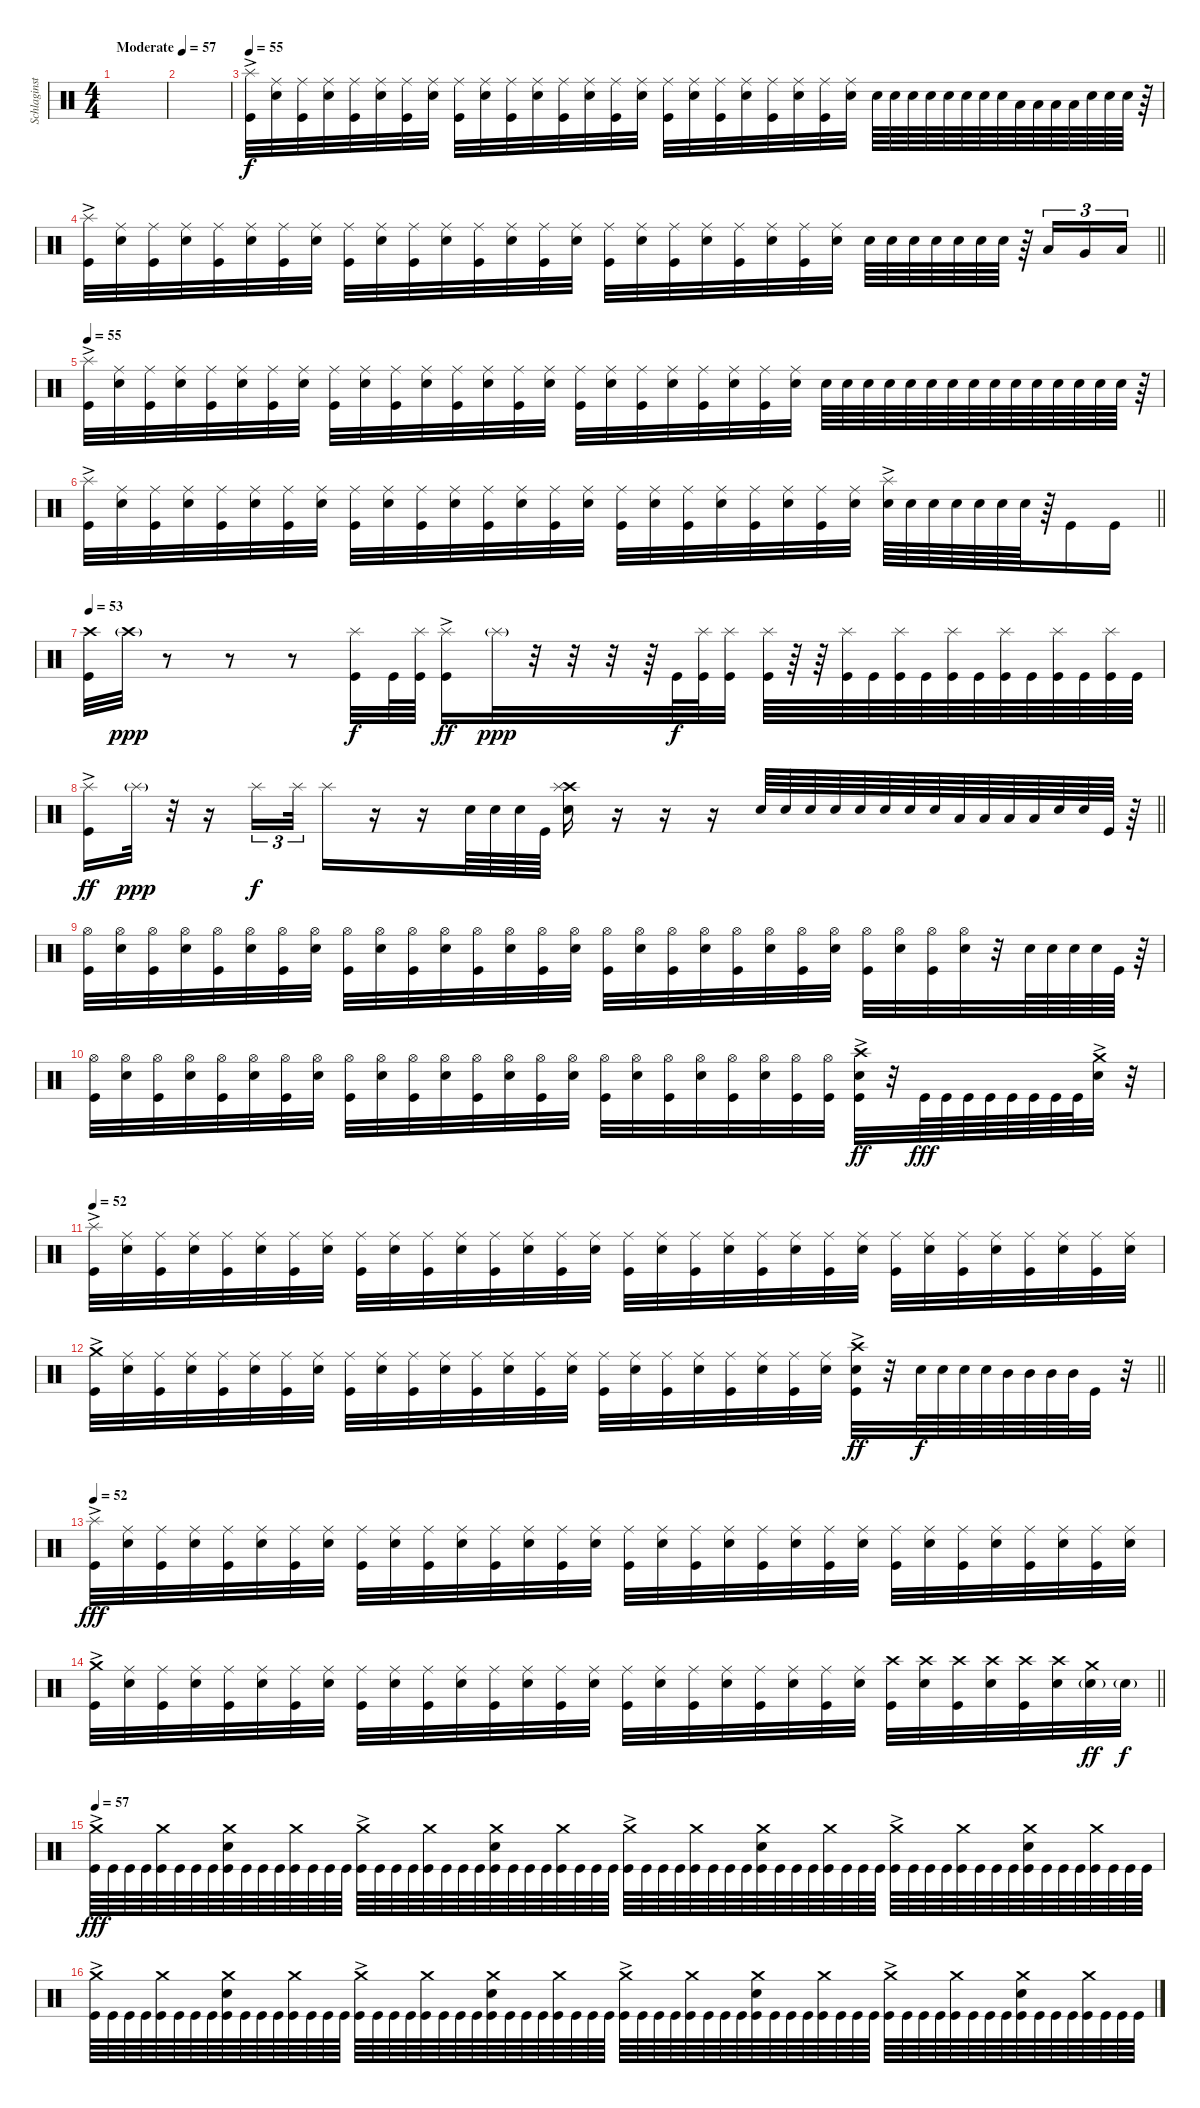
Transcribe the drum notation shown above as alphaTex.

\track ("Schlaginstrumente - Auswahl" "Schlaginst") {instrument percussion}
\staff {score}
\articulation defaults
\ts (4 4)
\tempo (57 "Moderate")
\clef neutral
\ks c
|
|
\tempo 55
("Kick (hit)" "Splash (hit)"{ac}).32 ("Snare (hit) 2" "Ride (middle)").32 ("Kick (hit)" "Ride (middle)").32 ("Snare (hit) 2" "Ride (middle)").32 ("Kick (hit)" "Ride (middle)").32 ("Snare (hit) 2" "Ride (middle)").32 ("Kick (hit)" "Ride (middle)").32 ("Snare (hit) 2" "Ride (middle)").32 ("Kick (hit)" "Ride (middle)").32 ("Snare (hit) 2" "Ride (middle)").32 ("Kick (hit)" "Ride (middle)").32 ("Snare (hit) 2" "Ride (middle)").32 ("Kick (hit)" "Ride (middle)").32 ("Snare (hit) 2" "Ride (middle)").32 ("Kick (hit)" "Ride (middle)").32 ("Snare (hit) 2" "Ride (middle)").32 ("Kick (hit)" "Ride (middle)").32 ("Snare (hit) 2" "Ride (middle)").32 ("Kick (hit)" "Ride (middle)").32 ("Snare (hit) 2" "Ride (middle)").32 ("Kick (hit)" "Ride (middle)").32 ("Snare (hit) 2" "Ride (middle)").32 ("Kick (hit)" "Ride (middle)").32 ("Snare (hit) 2" "Ride (middle)").32 "Snare (hit) 2".64 "Snare (hit) 2".64 "Snare (hit) 2".64 "Snare (hit) 2".64 "Snare (hit) 2".64 "Snare (hit) 2".64 "Snare (hit) 2".64 "Snare (hit) 2".64 "Low Tom (hit)".64 "Low Tom (hit)".64 "Low Tom (hit)".64 "Low Tom (hit)".64 "Snare (hit) 2".64 "Snare (hit) 2".64 "Snare (hit) 2".64 r.64 |
\barLineRight lightlight
("Kick (hit)" "Splash (hit)"{ac}).32 ("Snare (hit) 2" "Ride (middle)").32 ("Kick (hit)" "Ride (middle)").32 ("Snare (hit) 2" "Ride (middle)").32 ("Kick (hit)" "Ride (middle)").32 ("Snare (hit) 2" "Ride (middle)").32 ("Kick (hit)" "Ride (middle)").32 ("Snare (hit) 2" "Ride (middle)").32 ("Kick (hit)" "Ride (middle)").32 ("Snare (hit) 2" "Ride (middle)").32 ("Kick (hit)" "Ride (middle)").32 ("Snare (hit) 2" "Ride (middle)").32 ("Kick (hit)" "Ride (middle)").32 ("Snare (hit) 2" "Ride (middle)").32 ("Kick (hit)" "Ride (middle)").32 ("Snare (hit) 2" "Ride (middle)").32 ("Kick (hit)" "Ride (middle)").32 ("Snare (hit) 2" "Ride (middle)").32 ("Kick (hit)" "Ride (middle)").32 ("Snare (hit) 2" "Ride (middle)").32 ("Kick (hit)" "Ride (middle)").32 ("Snare (hit) 2" "Ride (middle)").32 ("Kick (hit)" "Ride (middle)").32 ("Snare (hit) 2" "Ride (middle)").32 "Snare (hit) 2".64 "Snare (hit) 2".64 "Snare (hit) 2".64 "Snare (hit) 2".64 "Snare (hit) 2".64 "Snare (hit) 2".64 "Snare (hit) 2".64 r.64 "Low Tom (hit)".16{tu (3 2)} "Very Low Tom (hit)".16{tu (3 2)} "Low Floor Tom (hit)".16{tu (3 2)} |
\tempo 55
("Kick (hit)" "Splash (hit)"{ac}).32 ("Snare (hit) 2" "Ride (middle)").32 ("Kick (hit)" "Ride (middle)").32 ("Snare (hit) 2" "Ride (middle)").32 ("Kick (hit)" "Ride (middle)").32 ("Snare (hit) 2" "Ride (middle)").32 ("Kick (hit)" "Ride (middle)").32 ("Snare (hit) 2" "Ride (middle)").32 ("Kick (hit)" "Ride (middle)").32 ("Snare (hit) 2" "Ride (middle)").32 ("Kick (hit)" "Ride (middle)").32 ("Snare (hit) 2" "Ride (middle)").32 ("Kick (hit)" "Ride (middle)").32 ("Snare (hit) 2" "Ride (middle)").32 ("Kick (hit)" "Ride (middle)").32 ("Snare (hit) 2" "Ride (middle)").32 ("Kick (hit)" "Ride (middle)").32 ("Snare (hit) 2" "Ride (middle)").32 ("Kick (hit)" "Ride (middle)").32 ("Snare (hit) 2" "Ride (middle)").32 ("Kick (hit)" "Ride (middle)").32 ("Snare (hit) 2" "Ride (middle)").32 ("Kick (hit)" "Ride (middle)").32 ("Snare (hit) 2" "Ride (middle)").32 "Snare (hit) 2".64 "Snare (hit) 2".64 "Snare (hit) 2".64 "Snare (hit) 2".64 "Snare (hit) 2".64 "Snare (hit) 2".64 "Snare (hit) 2".64 "Snare (hit) 2".64 "Snare (hit) 2".64 "Snare (hit) 2".64 "Snare (hit) 2".64 "Snare (hit) 2".64 "Snare (hit) 2".64 "Snare (hit) 2".64 "Snare (hit) 2".64 r.64 |
\barLineRight lightlight
("Kick (hit)" "Splash (hit)"{ac}).32 ("Snare (hit) 2" "Ride (middle)").32 ("Kick (hit)" "Ride (middle)").32 ("Snare (hit) 2" "Ride (middle)").32 ("Kick (hit)" "Ride (middle)").32 ("Snare (hit) 2" "Ride (middle)").32 ("Kick (hit)" "Ride (middle)").32 ("Snare (hit) 2" "Ride (middle)").32 ("Kick (hit)" "Ride (middle)").32 ("Snare (hit) 2" "Ride (middle)").32 ("Kick (hit)" "Ride (middle)").32 ("Snare (hit) 2" "Ride (middle)").32 ("Kick (hit)" "Ride (middle)").32 ("Snare (hit) 2" "Ride (middle)").32 ("Kick (hit)" "Ride (middle)").32 ("Snare (hit) 2" "Ride (middle)").32 ("Kick (hit)" "Ride (middle)").32 ("Snare (hit) 2" "Ride (middle)").32 ("Kick (hit)" "Ride (middle)").32 ("Snare (hit) 2" "Ride (middle)").32 ("Kick (hit)" "Ride (middle)").32 ("Snare (hit) 2" "Ride (middle)").32 ("Kick (hit)" "Ride (middle)").32 ("Snare (hit) 2" "Ride (middle)").32 ("Snare (hit) 2" "Splash (hit)"{ac}).64 "Snare (hit) 2".64 "Snare (hit) 2".64 "Snare (hit) 2".64 "Snare (hit) 2".64 "Snare (hit) 2".64 "Snare (hit) 2".64 r.64 "Kick (hit)".16 "Kick (hit)".16 |
\tempo 53
("Kick (hit)" "Crash high (hit)").32 "Crash high (hit)"{g}.32{dy ppp} r.8 r.8 r.8 ("Kick (hit)" "Splash (hit)").32{dy f} "Kick (hit)".64 ("Kick (hit)" "Splash (hit)").64 ("Kick (hit)" "Splash (hit)"{ac}).16{dy ff} "Splash (hit)"{g}.32{dy ppp} r.32 r.32 r.32 r.64 "Kick (hit)".64{dy f} ("Kick (hit)" "Splash (hit)").64 ("Kick (hit)" "Splash (hit)").32 ("Kick (hit)" "Splash (hit)").64 r.64 r.64 ("Kick (hit)" "Splash (hit)").64 "Kick (hit)".64 ("Kick (hit)" "Splash (hit)").64 "Kick (hit)".64 ("Kick (hit)" "Splash (hit)").64 "Kick (hit)".64 ("Kick (hit)" "Splash (hit)").64 "Kick (hit)".64 ("Kick (hit)" "Splash (hit)").64 "Kick (hit)".64 ("Kick (hit)" "Splash (hit)").64 "Kick (hit)".64 |
\barLineRight lightlight
("Kick (hit)" "Splash (hit)"{ac}).16{dy ff} "Splash (hit)"{g}.32{dy ppp} r.32 r.16 "Splash (hit)".16{tu (3 2) dy f} "Splash (hit)".32{tu (3 2)} "Splash (hit)".16 r.16 r.16 "Snare (hit) 2".64 "Snare (hit) 2".64 "Snare (hit) 2".64 "Kick (hit)".64 ("Snare (hit) 2" "Crash high (hit)" "Splash (hit)").16 r.16 r.16 r.16 "Snare (hit) 2".64 "Snare (hit) 2".64 "Snare (hit) 2".64 "Snare (hit) 2".64 "Snare (hit) 2".64 "Snare (hit) 2".64 "Snare (hit) 2".64 "Snare (hit) 2".64 "Low Tom (hit)".64 "Low Tom (hit)".64 "Low Tom (hit)".64 "Low Tom (hit)".64 "Snare (hit) 2".64 "Snare (hit) 2".64 "Kick (hit)".64 r.64 |
("Hi-Hat (open)" "Kick (hit)").32 ("Hi-Hat (open)" "Snare (hit) 2").32 ("Hi-Hat (open)" "Kick (hit)").32 ("Hi-Hat (open)" "Snare (hit) 2").32 ("Hi-Hat (open)" "Kick (hit)").32 ("Hi-Hat (open)" "Snare (hit) 2").32 ("Hi-Hat (open)" "Kick (hit)").32 ("Hi-Hat (open)" "Snare (hit) 2").32 ("Hi-Hat (open)" "Kick (hit)").32 ("Hi-Hat (open)" "Snare (hit) 2").32 ("Hi-Hat (open)" "Kick (hit)").32 ("Hi-Hat (open)" "Snare (hit) 2").32 ("Hi-Hat (open)" "Kick (hit)").32 ("Hi-Hat (open)" "Snare (hit) 2").32 ("Hi-Hat (open)" "Kick (hit)").32 ("Hi-Hat (open)" "Snare (hit) 2").32 ("Hi-Hat (open)" "Kick (hit)").32 ("Hi-Hat (open)" "Snare (hit) 2").32 ("Hi-Hat (open)" "Kick (hit)").32 ("Hi-Hat (open)" "Snare (hit) 2").32 ("Hi-Hat (open)" "Kick (hit)").32 ("Hi-Hat (open)" "Snare (hit) 2").32 ("Hi-Hat (open)" "Kick (hit)").32 ("Hi-Hat (open)" "Snare (hit) 2").32 ("Hi-Hat (open)" "Kick (hit)").32 ("Hi-Hat (open)" "Snare (hit) 2").32 ("Hi-Hat (open)" "Kick (hit)").32 ("Hi-Hat (open)" "Snare (hit) 2").32 r.32 "Snare (hit) 2".64 "Snare (hit) 2".64 "Snare (hit) 2".64 "Snare (hit) 2".64 "Kick (hit)".64 r.64 |
("Hi-Hat (open)" "Kick (hit)").32 ("Hi-Hat (open)" "Snare (hit) 2").32 ("Hi-Hat (open)" "Kick (hit)").32 ("Hi-Hat (open)" "Snare (hit) 2").32 ("Hi-Hat (open)" "Kick (hit)").32 ("Hi-Hat (open)" "Snare (hit) 2").32 ("Hi-Hat (open)" "Kick (hit)").32 ("Hi-Hat (open)" "Snare (hit) 2").32 ("Hi-Hat (open)" "Kick (hit)").32 ("Hi-Hat (open)" "Snare (hit) 2").32 ("Hi-Hat (open)" "Kick (hit)").32 ("Hi-Hat (open)" "Snare (hit) 2").32 ("Hi-Hat (open)" "Kick (hit)").32 ("Hi-Hat (open)" "Snare (hit) 2").32 ("Hi-Hat (open)" "Kick (hit)").32 ("Hi-Hat (open)" "Snare (hit) 2").32 ("Hi-Hat (open)" "Kick (hit)").32 ("Hi-Hat (open)" "Snare (hit) 2").32 ("Hi-Hat (open)" "Kick (hit)").32 ("Hi-Hat (open)" "Snare (hit) 2").32 ("Hi-Hat (open)" "Kick (hit)").32 ("Hi-Hat (open)" "Snare (hit) 2").32 ("Hi-Hat (open)" "Kick (hit)").32 ("Hi-Hat (open)" "Kick (hit)").32 ("Snare (hit) 2"{ac} "Crash high (hit)"{ac} "Kick (hit)").32{dy ff} r.32 "Kick (hit)".64{dy fff} "Kick (hit)".64 "Kick (hit)".64 "Kick (hit)".64 "Kick (hit)".64 "Kick (hit)".64 "Kick (hit)".64 "Kick (hit)".64 ("Crash medium (hit)" "Snare (hit) 2"{ac}).32 r.32 |
\tempo 52
("Kick (hit)" "Splash (hit)"{ac}).32 ("Snare (hit) 2" "Ride (middle)").32 ("Kick (hit)" "Ride (middle)").32 ("Snare (hit) 2" "Ride (middle)").32 ("Kick (hit)" "Ride (middle)").32 ("Snare (hit) 2" "Ride (middle)").32 ("Kick (hit)" "Ride (middle)").32 ("Snare (hit) 2" "Ride (middle)").32 ("Kick (hit)" "Ride (middle)").32 ("Snare (hit) 2" "Ride (middle)").32 ("Kick (hit)" "Ride (middle)").32 ("Snare (hit) 2" "Ride (middle)").32 ("Kick (hit)" "Ride (middle)").32 ("Snare (hit) 2" "Ride (middle)").32 ("Kick (hit)" "Ride (middle)").32 ("Snare (hit) 2" "Ride (middle)").32 ("Kick (hit)" "Ride (middle)").32 ("Snare (hit) 2" "Ride (middle)").32 ("Kick (hit)" "Ride (middle)").32 ("Snare (hit) 2" "Ride (middle)").32 ("Kick (hit)" "Ride (middle)").32 ("Snare (hit) 2" "Ride (middle)").32 ("Kick (hit)" "Ride (middle)").32 ("Snare (hit) 2" "Ride (middle)").32 ("Kick (hit)" "Ride (middle)").32 ("Snare (hit) 2" "Ride (middle)").32 ("Kick (hit)" "Ride (middle)").32 ("Snare (hit) 2" "Ride (middle)").32 ("Kick (hit)" "Ride (middle)").32 ("Snare (hit) 2" "Ride (middle)").32 ("Kick (hit)" "Ride (middle)").32 ("Snare (hit) 2" "Ride (middle)").32 |
\barLineRight lightlight
("Kick (hit)" "Crash medium (hit)"{ac}).32 ("Snare (hit) 2" "Ride (middle)").32 ("Kick (hit)" "Ride (middle)").32 ("Snare (hit) 2" "Ride (middle)").32 ("Kick (hit)" "Ride (middle)").32 ("Snare (hit) 2" "Ride (middle)").32 ("Kick (hit)" "Ride (middle)").32 ("Snare (hit) 2" "Ride (middle)").32 ("Kick (hit)" "Ride (middle)").32 ("Snare (hit) 2" "Ride (middle)").32 ("Kick (hit)" "Ride (middle)").32 ("Snare (hit) 2" "Ride (middle)").32 ("Kick (hit)" "Ride (middle)").32 ("Snare (hit) 2" "Ride (middle)").32 ("Kick (hit)" "Ride (middle)").32 ("Snare (hit) 2" "Ride (middle)").32 ("Kick (hit)" "Ride (middle)").32 ("Snare (hit) 2" "Ride (middle)").32 ("Kick (hit)" "Ride (middle)").32 ("Snare (hit) 2" "Ride (middle)").32 ("Kick (hit)" "Ride (middle)").32 ("Snare (hit) 2" "Ride (middle)").32 ("Kick (hit)" "Ride (middle)").32 ("Snare (hit) 2" "Ride (middle)").32 ("Snare (hit) 2"{ac} "Crash high (hit)"{ac} "Kick (hit)").32{dy ff} r.32 "Snare (hit) 2".64{dy f} "Snare (hit) 2".64 "Snare (hit) 2".64 "Snare (hit) 2".64 "Mid Tom (hit)".64 "Mid Tom (hit)".64 "Mid Tom (hit)".64 "Mid Tom (hit)".64 "Kick (hit)".32 r.32 |
\tempo 52
("Kick (hit)" "Splash (hit)"{ac}).32{dy fff} ("Snare (hit) 2" "Ride (middle)").32 ("Kick (hit)" "Ride (middle)").32 ("Snare (hit) 2" "Ride (middle)").32 ("Kick (hit)" "Ride (middle)").32 ("Snare (hit) 2" "Ride (middle)").32 ("Kick (hit)" "Ride (middle)").32 ("Snare (hit) 2" "Ride (middle)").32 ("Kick (hit)" "Ride (middle)").32 ("Snare (hit) 2" "Ride (middle)").32 ("Kick (hit)" "Ride (middle)").32 ("Snare (hit) 2" "Ride (middle)").32 ("Kick (hit)" "Ride (middle)").32 ("Snare (hit) 2" "Ride (middle)").32 ("Kick (hit)" "Ride (middle)").32 ("Snare (hit) 2" "Ride (middle)").32 ("Kick (hit)" "Ride (middle)").32 ("Snare (hit) 2" "Ride (middle)").32 ("Kick (hit)" "Ride (middle)").32 ("Snare (hit) 2" "Ride (middle)").32 ("Kick (hit)" "Ride (middle)").32 ("Snare (hit) 2" "Ride (middle)").32 ("Kick (hit)" "Ride (middle)").32 ("Snare (hit) 2" "Ride (middle)").32 ("Kick (hit)" "Ride (middle)").32 ("Snare (hit) 2" "Ride (middle)").32 ("Kick (hit)" "Ride (middle)").32 ("Snare (hit) 2" "Ride (middle)").32 ("Kick (hit)" "Ride (middle)").32 ("Snare (hit) 2" "Ride (middle)").32 ("Kick (hit)" "Ride (middle)").32 ("Snare (hit) 2" "Ride (middle)").32 |
\barLineRight lightlight
("Kick (hit)" "Crash medium (hit)"{ac}).32 ("Snare (hit) 2" "Ride (middle)").32 ("Kick (hit)" "Ride (middle)").32 ("Snare (hit) 2" "Ride (middle)").32 ("Kick (hit)" "Ride (middle)").32 ("Snare (hit) 2" "Ride (middle)").32 ("Kick (hit)" "Ride (middle)").32 ("Snare (hit) 2" "Ride (middle)").32 ("Kick (hit)" "Ride (middle)").32 ("Snare (hit) 2" "Ride (middle)").32 ("Kick (hit)" "Ride (middle)").32 ("Snare (hit) 2" "Ride (middle)").32 ("Kick (hit)" "Ride (middle)").32 ("Snare (hit) 2" "Ride (middle)").32 ("Kick (hit)" "Ride (middle)").32 ("Snare (hit) 2" "Ride (middle)").32 ("Kick (hit)" "Ride (middle)").32 ("Snare (hit) 2" "Ride (middle)").32 ("Kick (hit)" "Ride (middle)").32 ("Snare (hit) 2" "Ride (middle)").32 ("Kick (hit)" "Ride (middle)").32 ("Snare (hit) 2" "Ride (middle)").32 ("Kick (hit)" "Ride (middle)").32 ("Snare (hit) 2" "Ride (middle)").32 ("Crash high (hit)" "Kick (hit)").32 ("Crash high (hit)" "Snare (hit) 2").32 ("Crash high (hit)" "Kick (hit)").32 ("Crash high (hit)" "Snare (hit) 2").32 ("Crash high (hit)" "Kick (hit)").32 ("Crash high (hit)" "Snare (hit) 2").32 ("Crash medium (hit)" "Snare (hit) 2"{g}).32{dy ff} "Snare (hit) 2"{g}.32{dy f} |
\tempo 57
("Crash medium (hit)"{ac} "Kick (hit)").64{dy fff} "Kick (hit)".64 "Kick (hit)".64 "Kick (hit)".64 ("Crash medium (hit)" "Kick (hit)").64 "Kick (hit)".64 "Kick (hit)".64 "Kick (hit)".64 ("Crash medium (hit)" "Snare (hit) 2" "Kick (hit)").64 "Kick (hit)".64 "Kick (hit)".64 "Kick (hit)".64 ("Crash medium (hit)" "Kick (hit)").64 "Kick (hit)".64 "Kick (hit)".64 "Kick (hit)".64 ("Crash medium (hit)"{ac} "Kick (hit)").64 "Kick (hit)".64 "Kick (hit)".64 "Kick (hit)".64 ("Crash medium (hit)" "Kick (hit)").64 "Kick (hit)".64 "Kick (hit)".64 "Kick (hit)".64 ("Crash medium (hit)" "Snare (hit) 2" "Kick (hit)").64 "Kick (hit)".64 "Kick (hit)".64 "Kick (hit)".64 ("Crash medium (hit)" "Kick (hit)").64 "Kick (hit)".64 "Kick (hit)".64 "Kick (hit)".64 ("Crash medium (hit)"{ac} "Kick (hit)").64 "Kick (hit)".64 "Kick (hit)".64 "Kick (hit)".64 ("Crash medium (hit)" "Kick (hit)").64 "Kick (hit)".64 "Kick (hit)".64 "Kick (hit)".64 ("Crash medium (hit)" "Snare (hit) 2" "Kick (hit)").64 "Kick (hit)".64 "Kick (hit)".64 "Kick (hit)".64 ("Crash medium (hit)" "Kick (hit)").64 "Kick (hit)".64 "Kick (hit)".64 "Kick (hit)".64 ("Crash medium (hit)"{ac} "Kick (hit)").64 "Kick (hit)".64 "Kick (hit)".64 "Kick (hit)".64 ("Crash medium (hit)" "Kick (hit)").64 "Kick (hit)".64 "Kick (hit)".64 "Kick (hit)".64 ("Crash medium (hit)" "Snare (hit) 2" "Kick (hit)").64 "Kick (hit)".64 "Kick (hit)".64 "Kick (hit)".64 ("Crash medium (hit)" "Kick (hit)").64 "Kick (hit)".64 "Kick (hit)".64 "Kick (hit)".64 |
("Crash medium (hit)"{ac} "Kick (hit)").64 "Kick (hit)".64 "Kick (hit)".64 "Kick (hit)".64 ("Crash medium (hit)" "Kick (hit)").64 "Kick (hit)".64 "Kick (hit)".64 "Kick (hit)".64 ("Crash medium (hit)" "Snare (hit) 2" "Kick (hit)").64 "Kick (hit)".64 "Kick (hit)".64 "Kick (hit)".64 ("Crash medium (hit)" "Kick (hit)").64 "Kick (hit)".64 "Kick (hit)".64 "Kick (hit)".64 ("Crash medium (hit)"{ac} "Kick (hit)").64 "Kick (hit)".64 "Kick (hit)".64 "Kick (hit)".64 ("Crash medium (hit)" "Kick (hit)").64 "Kick (hit)".64 "Kick (hit)".64 "Kick (hit)".64 ("Crash medium (hit)" "Snare (hit) 2" "Kick (hit)").64 "Kick (hit)".64 "Kick (hit)".64 "Kick (hit)".64 ("Crash medium (hit)" "Kick (hit)").64 "Kick (hit)".64 "Kick (hit)".64 "Kick (hit)".64 ("Crash medium (hit)"{ac} "Kick (hit)").64 "Kick (hit)".64 "Kick (hit)".64 "Kick (hit)".64 ("Crash medium (hit)" "Kick (hit)").64 "Kick (hit)".64 "Kick (hit)".64 "Kick (hit)".64 ("Crash medium (hit)" "Snare (hit) 2" "Kick (hit)").64 "Kick (hit)".64 "Kick (hit)".64 "Kick (hit)".64 ("Crash medium (hit)" "Kick (hit)").64 "Kick (hit)".64 "Kick (hit)".64 "Kick (hit)".64 ("Crash medium (hit)"{ac} "Kick (hit)").64 "Kick (hit)".64 "Kick (hit)".64 "Kick (hit)".64 ("Crash medium (hit)" "Kick (hit)").64 "Kick (hit)".64 "Kick (hit)".64 "Kick (hit)".64 ("Crash medium (hit)" "Snare (hit) 2" "Kick (hit)").64 "Kick (hit)".64 "Kick (hit)".64 "Kick (hit)".64 ("Crash medium (hit)" "Kick (hit)").64 "Kick (hit)".64 "Kick (hit)".64 "Kick (hit)".64
